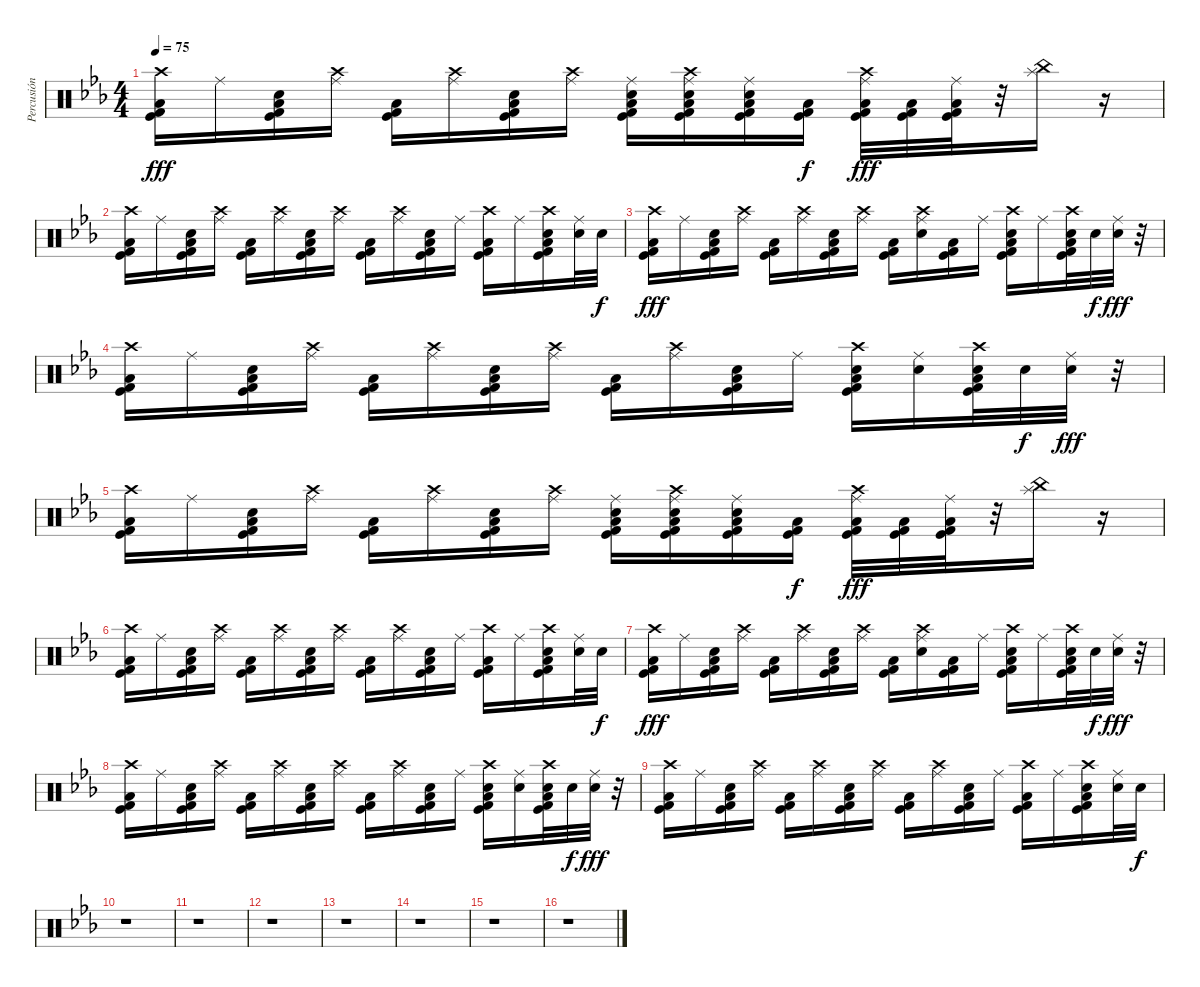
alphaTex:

\track ("Percusión" "Percusión") {instrument percussion}
\staff {score}
\articulation defaults
\ts (4 4)
\tempo 75
\clef neutral
\ks eb
("Crash high (hit)" "Low Floor Tom (hit)" "Kick (hit) 2" "Kick (hit)").16{dy fff} "Ride (middle)".16 ("Low Floor Tom (hit)" "Electric Snare (hit)" "Kick (hit) 2" "Kick (hit)").16 ("Crash high (hit)" "Ride (middle)").16 ("Low Floor Tom (hit)" "Kick (hit) 2" "Kick (hit)").16 ("Crash high (hit)" "Ride (middle)").16 ("Low Floor Tom (hit)" "Electric Snare (hit)" "Kick (hit) 2" "Kick (hit)").16 ("Crash high (hit)" "Ride (middle)").16 ("Ride (middle)" "Low Floor Tom (hit)" "Electric Snare (hit)" "Kick (hit) 2" "Kick (hit)").16 ("Crash high (hit)" "Ride (middle)" "Low Floor Tom (hit)" "Electric Snare (hit)" "Kick (hit) 2" "Kick (hit)").16 ("Ride (middle)" "Low Floor Tom (hit)" "Electric Snare (hit)" "Kick (hit) 2" "Kick (hit)").16 ("Low Floor Tom (hit)" "Kick (hit) 2" "Kick (hit)").16{dy f} ("Crash high (hit)" "Ride (middle)" "Low Floor Tom (hit)" "Kick (hit) 2" "Kick (hit)").32{dy fff} ("Low Floor Tom (hit)" "Kick (hit) 2" "Kick (hit)").32 ("Ride (middle)" "Low Floor Tom (hit)" "Kick (hit) 2" "Kick (hit)").32 r.32 ("Splash (hit)" "China (hit)").16 r.16 |
("Crash high (hit)" "Low Floor Tom (hit)" "Kick (hit) 2" "Kick (hit)").16 "Ride (middle)".16 ("Low Floor Tom (hit)" "Electric Snare (hit)" "Kick (hit) 2" "Kick (hit)").16 ("Crash high (hit)" "Ride (middle)").16 ("Low Floor Tom (hit)" "Kick (hit) 2" "Kick (hit)").16 ("Crash high (hit)" "Ride (middle)").16 ("Low Floor Tom (hit)" "Electric Snare (hit)" "Kick (hit) 2" "Kick (hit)").16 ("Crash high (hit)" "Ride (middle)").16 ("Low Floor Tom (hit)" "Kick (hit) 2" "Kick (hit)").16 ("Crash high (hit)" "Ride (middle)").16 ("Low Floor Tom (hit)" "Electric Snare (hit)" "Kick (hit) 2" "Kick (hit)").16 "Ride (middle)".16 ("Crash high (hit)" "Low Floor Tom (hit)" "Kick (hit) 2" "Kick (hit)").16 "Ride (middle)".16 ("Crash high (hit)" "Low Floor Tom (hit)" "Electric Snare (hit)" "Kick (hit) 2" "Kick (hit)").16 ("Ride (middle)" "Electric Snare (hit)").32 "Electric Snare (hit)".32{dy f} |
("Crash high (hit)" "Low Floor Tom (hit)" "Kick (hit) 2" "Kick (hit)").16{dy fff} "Ride (middle)".16 ("Low Floor Tom (hit)" "Electric Snare (hit)" "Kick (hit) 2" "Kick (hit)").16 ("Crash high (hit)" "Ride (middle)").16 ("Low Floor Tom (hit)" "Kick (hit) 2" "Kick (hit)").16 ("Crash high (hit)" "Ride (middle)").16 ("Low Floor Tom (hit)" "Electric Snare (hit)" "Kick (hit) 2" "Kick (hit)").16 ("Crash high (hit)" "Ride (middle)").16 ("Low Floor Tom (hit)" "Kick (hit) 2" "Kick (hit)").16 ("Crash high (hit)" "Ride (middle)" "Electric Snare (hit)").16 ("Low Floor Tom (hit)" "Kick (hit) 2" "Kick (hit)").16 "Ride (middle)".16 ("Crash high (hit)" "Low Floor Tom (hit)" "Electric Snare (hit)" "Kick (hit) 2" "Kick (hit)").16 "Ride (middle)".16 ("Crash high (hit)" "Low Floor Tom (hit)" "Electric Snare (hit)" "Kick (hit) 2" "Kick (hit)").32 "Electric Snare (hit)".32{dy f} ("Ride (middle)" "Electric Snare (hit)").32{dy fff} r.32 |
("Crash high (hit)" "Low Floor Tom (hit)" "Kick (hit) 2" "Kick (hit)").16 "Ride (middle)".16 ("Low Floor Tom (hit)" "Electric Snare (hit)" "Kick (hit) 2" "Kick (hit)").16 ("Crash high (hit)" "Ride (middle)").16 ("Low Floor Tom (hit)" "Kick (hit) 2" "Kick (hit)").16 ("Crash high (hit)" "Ride (middle)").16 ("Low Floor Tom (hit)" "Electric Snare (hit)" "Kick (hit) 2" "Kick (hit)").16 ("Crash high (hit)" "Ride (middle)").16 ("Low Floor Tom (hit)" "Kick (hit) 2" "Kick (hit)").16 ("Crash high (hit)" "Ride (middle)").16 ("Low Floor Tom (hit)" "Electric Snare (hit)" "Kick (hit) 2" "Kick (hit)").16 "Ride (middle)".16 ("Crash high (hit)" "Low Floor Tom (hit)" "Electric Snare (hit)" "Kick (hit) 2" "Kick (hit)").16 ("Ride (middle)" "Electric Snare (hit)").16 ("Crash high (hit)" "Low Floor Tom (hit)" "Electric Snare (hit)" "Kick (hit) 2" "Kick (hit)").32 "Electric Snare (hit)".32{dy f} ("Ride (middle)" "Electric Snare (hit)").32{dy fff} r.32 |
("Crash high (hit)" "Low Floor Tom (hit)" "Kick (hit) 2" "Kick (hit)").16 "Ride (middle)".16 ("Low Floor Tom (hit)" "Electric Snare (hit)" "Kick (hit) 2" "Kick (hit)").16 ("Crash high (hit)" "Ride (middle)").16 ("Low Floor Tom (hit)" "Kick (hit) 2" "Kick (hit)").16 ("Crash high (hit)" "Ride (middle)").16 ("Low Floor Tom (hit)" "Electric Snare (hit)" "Kick (hit) 2" "Kick (hit)").16 ("Crash high (hit)" "Ride (middle)").16 ("Ride (middle)" "Low Floor Tom (hit)" "Electric Snare (hit)" "Kick (hit) 2" "Kick (hit)").16 ("Crash high (hit)" "Ride (middle)" "Low Floor Tom (hit)" "Electric Snare (hit)" "Kick (hit) 2" "Kick (hit)").16 ("Ride (middle)" "Low Floor Tom (hit)" "Electric Snare (hit)" "Kick (hit) 2" "Kick (hit)").16 ("Low Floor Tom (hit)" "Kick (hit) 2" "Kick (hit)").16{dy f} ("Crash high (hit)" "Ride (middle)" "Low Floor Tom (hit)" "Kick (hit) 2" "Kick (hit)").32{dy fff} ("Low Floor Tom (hit)" "Kick (hit) 2" "Kick (hit)").32 ("Ride (middle)" "Low Floor Tom (hit)" "Kick (hit) 2" "Kick (hit)").32 r.32 ("Splash (hit)" "China (hit)").16 r.16 |
("Crash high (hit)" "Low Floor Tom (hit)" "Kick (hit) 2" "Kick (hit)").16 "Ride (middle)".16 ("Low Floor Tom (hit)" "Electric Snare (hit)" "Kick (hit) 2" "Kick (hit)").16 ("Crash high (hit)" "Ride (middle)").16 ("Low Floor Tom (hit)" "Kick (hit) 2" "Kick (hit)").16 ("Crash high (hit)" "Ride (middle)").16 ("Low Floor Tom (hit)" "Electric Snare (hit)" "Kick (hit) 2" "Kick (hit)").16 ("Crash high (hit)" "Ride (middle)").16 ("Low Floor Tom (hit)" "Kick (hit) 2" "Kick (hit)").16 ("Crash high (hit)" "Ride (middle)").16 ("Low Floor Tom (hit)" "Electric Snare (hit)" "Kick (hit) 2" "Kick (hit)").16 "Ride (middle)".16 ("Crash high (hit)" "Low Floor Tom (hit)" "Kick (hit) 2" "Kick (hit)").16 "Ride (middle)".16 ("Crash high (hit)" "Low Floor Tom (hit)" "Electric Snare (hit)" "Kick (hit) 2" "Kick (hit)").16 ("Ride (middle)" "Electric Snare (hit)").32 "Electric Snare (hit)".32{dy f} |
("Crash high (hit)" "Low Floor Tom (hit)" "Kick (hit) 2" "Kick (hit)").16{dy fff} "Ride (middle)".16 ("Low Floor Tom (hit)" "Electric Snare (hit)" "Kick (hit) 2" "Kick (hit)").16 ("Crash high (hit)" "Ride (middle)").16 ("Low Floor Tom (hit)" "Kick (hit) 2" "Kick (hit)").16 ("Crash high (hit)" "Ride (middle)").16 ("Low Floor Tom (hit)" "Electric Snare (hit)" "Kick (hit) 2" "Kick (hit)").16 ("Crash high (hit)" "Ride (middle)").16 ("Low Floor Tom (hit)" "Kick (hit) 2" "Kick (hit)").16 ("Crash high (hit)" "Ride (middle)" "Electric Snare (hit)").16 ("Low Floor Tom (hit)" "Kick (hit) 2" "Kick (hit)").16 "Ride (middle)".16 ("Crash high (hit)" "Low Floor Tom (hit)" "Electric Snare (hit)" "Kick (hit) 2" "Kick (hit)").16 "Ride (middle)".16 ("Crash high (hit)" "Low Floor Tom (hit)" "Electric Snare (hit)" "Kick (hit) 2" "Kick (hit)").32 "Electric Snare (hit)".32{dy f} ("Ride (middle)" "Electric Snare (hit)").32{dy fff} r.32 |
("Crash high (hit)" "Low Floor Tom (hit)" "Kick (hit) 2" "Kick (hit)").16 "Ride (middle)".16 ("Low Floor Tom (hit)" "Electric Snare (hit)" "Kick (hit) 2" "Kick (hit)").16 ("Crash high (hit)" "Ride (middle)").16 ("Low Floor Tom (hit)" "Kick (hit) 2" "Kick (hit)").16 ("Crash high (hit)" "Ride (middle)").16 ("Low Floor Tom (hit)" "Electric Snare (hit)" "Kick (hit) 2" "Kick (hit)").16 ("Crash high (hit)" "Ride (middle)").16 ("Low Floor Tom (hit)" "Kick (hit) 2" "Kick (hit)").16 ("Crash high (hit)" "Ride (middle)").16 ("Low Floor Tom (hit)" "Electric Snare (hit)" "Kick (hit) 2" "Kick (hit)").16 "Ride (middle)".16 ("Crash high (hit)" "Low Floor Tom (hit)" "Electric Snare (hit)" "Kick (hit) 2" "Kick (hit)").16 ("Ride (middle)" "Electric Snare (hit)").16 ("Crash high (hit)" "Low Floor Tom (hit)" "Electric Snare (hit)" "Kick (hit) 2" "Kick (hit)").32 "Electric Snare (hit)".32{dy f} ("Ride (middle)" "Electric Snare (hit)").32{dy fff} r.32 |
("Crash high (hit)" "Low Floor Tom (hit)" "Kick (hit) 2" "Kick (hit)").16 "Ride (middle)".16 ("Low Floor Tom (hit)" "Electric Snare (hit)" "Kick (hit) 2" "Kick (hit)").16 ("Crash high (hit)" "Ride (middle)").16 ("Low Floor Tom (hit)" "Kick (hit) 2" "Kick (hit)").16 ("Crash high (hit)" "Ride (middle)").16 ("Low Floor Tom (hit)" "Electric Snare (hit)" "Kick (hit) 2" "Kick (hit)").16 ("Crash high (hit)" "Ride (middle)").16 ("Low Floor Tom (hit)" "Kick (hit) 2" "Kick (hit)").16 ("Crash high (hit)" "Ride (middle)").16 ("Low Floor Tom (hit)" "Electric Snare (hit)" "Kick (hit) 2" "Kick (hit)").16 "Ride (middle)".16 ("Crash high (hit)" "Low Floor Tom (hit)" "Kick (hit) 2" "Kick (hit)").16 "Ride (middle)".16 ("Crash high (hit)" "Low Floor Tom (hit)" "Electric Snare (hit)" "Kick (hit) 2" "Kick (hit)").16 ("Ride (middle)" "Electric Snare (hit)").32 "Electric Snare (hit)".32{dy f} |
r.1 |
r.1 |
r.1 |
r.1 |
r.1 |
r.1 |
r.1
